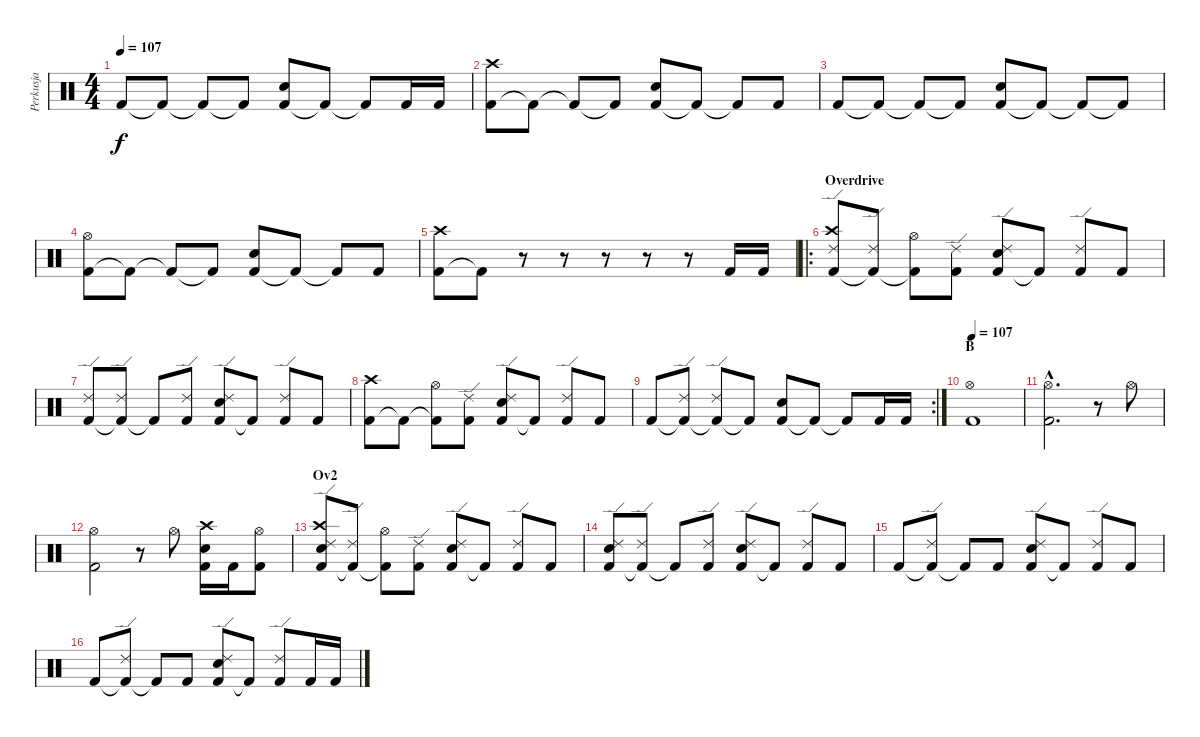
\track ("Perkusja" "Perkusja") {instrument percussion}
\staff {score}
\articulation defaults
\ts (4 4)
\tempo 107
\clef neutral
\ks c "Kick (hit) 2".8{dy f} "Kick (hit) 2"{t}.8 "Kick (hit) 2"{t}.8 "Kick (hit) 2"{t}.8
("Kick (hit) 2" "Snare (hit) 2").8 "Kick (hit) 2"{t}.8 "Kick (hit) 2"{t}.8 "Kick (hit) 2".16 "Kick (hit) 2".16 |
("Kick (hit) 2" "Crash high (hit)").8 "Kick (hit) 2"{t}.8 "Kick (hit) 2"{t}.8 "Kick (hit) 2"{t}.8 ("Kick (hit) 2" "Snare (hit) 2").8 "Kick (hit) 2"{t}.8 "Kick (hit) 2"{t}.8 "Kick (hit) 2".8 |
"Kick (hit) 2".8 "Kick (hit) 2"{t}.8 "Kick (hit) 2"{t}.8 "Kick (hit) 2"{t}.8 ("Kick (hit) 2" "Snare (hit) 2").8 "Kick (hit) 2"{t}.8 "Kick (hit) 2"{t}.8 "Kick (hit) 2"{t}.8 |
("Kick (hit) 2" "Hi-Hat (open)").8 "Kick (hit) 2"{t}.8 "Kick (hit) 2"{t}.8 "Kick (hit) 2"{t}.8 ("Kick (hit) 2" "Snare (hit) 2").8 "Kick (hit) 2"{t}.8 "Kick (hit) 2"{t}.8 "Kick (hit) 2".8 |
("Kick (hit) 2" "Crash high (hit)").8 "Kick (hit) 2"{t}.8 r.8 r.8 r.8 r.8 r.8 "Kick (hit) 2".16 "Kick (hit) 2".16 |
\ro
\section ("" "Overdrive")
("Kick (hit) 2" "Ride (edge) 2" "Crash high (hit)").8 ("Kick (hit) 2"{t} "Ride (edge) 2").8 ("Kick (hit) 2"{t} "Hi-Hat (open)").8 ("Kick (hit) 2" "Ride (edge) 2").8 ("Kick (hit) 2" "Snare (hit) 2" "Ride (edge) 2").8 "Kick (hit) 2"{t}.8 ("Kick (hit) 2" "Ride (edge) 2").8 "Kick (hit) 2".8 |
("Kick (hit) 2" "Ride (edge) 2").8 ("Kick (hit) 2"{t} "Ride (edge) 2").8 "Kick (hit) 2"{t}.8 ("Kick (hit) 2" "Ride (edge) 2").8 ("Kick (hit) 2" "Snare (hit) 2" "Ride (edge) 2").8 "Kick (hit) 2"{t}.8 ("Kick (hit) 2" "Ride (edge) 2").8 "Kick (hit) 2".8 |
("Kick (hit) 2" "Crash high (hit)").8 "Kick (hit) 2"{t}.8 ("Kick (hit) 2"{t} "Hi-Hat (open)").8 ("Kick (hit) 2" "Ride (edge) 2").8 ("Kick (hit) 2" "Snare (hit) 2" "Ride (edge) 2").8 "Kick (hit) 2"{t}.8 ("Kick (hit) 2" "Ride (edge) 2").8 "Kick (hit) 2".8 |
\rc 2 "Kick (hit) 2".8
("Kick (hit) 2"{t} "Ride (edge) 2").8 ("Kick (hit) 2"{t} "Ride (edge) 2").8 "Kick (hit) 2"{t}.8 ("Kick (hit) 2" "Snare (hit) 2").8 "Kick (hit) 2"{t}.8 "Kick (hit) 2"{t}.8 "Kick (hit) 2".16 "Kick (hit) 2".16 |
\section ("" "B")
\tempo 107
("Kick (hit) 2" "Hi-Hat (open)").1 |
("Kick (hit) 2"{hac} "Hi-Hat (open)"{hac}).2{d} r.8 "Hi-Hat (open)".8 |
("Kick (hit) 2" "Hi-Hat (open)").2 r.8 "Hi-Hat (open)".8 ("Kick (hit) 2" "Electric Snare (hit)" "Crash high (hit)").16 "Kick (hit) 2".16 ("Kick (hit) 2" "Hi-Hat (open)").8 |
\section ("" "Ov2")
("Kick (hit) 2" "Snare (hit) 2" "Ride (edge) 2" "Crash high (hit)").8 ("Kick (hit) 2"{t} "Ride (edge) 2").8 ("Kick (hit) 2"{t} "Hi-Hat (open)").8 ("Kick (hit) 2" "Ride (edge) 2").8 ("Kick (hit) 2" "Snare (hit) 2" "Ride (edge) 2").8 "Kick (hit) 2"{t}.8 ("Kick (hit) 2" "Ride (edge) 2").8 "Kick (hit) 2".8 |
("Kick (hit) 2" "Snare (hit) 2" "Ride (edge) 2").8 ("Kick (hit) 2"{t} "Ride (edge) 2").8 "Kick (hit) 2"{t}.8 ("Kick (hit) 2" "Ride (edge) 2").8 ("Kick (hit) 2" "Snare (hit) 2" "Ride (edge) 2").8 "Kick (hit) 2"{t}.8 ("Kick (hit) 2" "Ride (edge) 2").8 "Kick (hit) 2".8 |
"Kick (hit) 2".8 ("Kick (hit) 2"{t} "Ride (edge) 2").8 "Kick (hit) 2"{t}.8 "Kick (hit) 2".8 ("Kick (hit) 2" "Snare (hit) 2" "Ride (edge) 2").8 "Kick (hit) 2"{t}.8 ("Kick (hit) 2" "Ride (edge) 2").8 "Kick (hit) 2".8 |
"Kick (hit) 2".8 ("Kick (hit) 2"{t} "Ride (edge) 2").8 "Kick (hit) 2"{t}.8 "Kick (hit) 2".8 ("Kick (hit) 2" "Snare (hit) 2" "Ride (edge) 2").8 "Kick (hit) 2"{t}.8 ("Kick (hit) 2" "Ride (edge) 2").8 "Kick (hit) 2".16 "Kick (hit) 2".16
